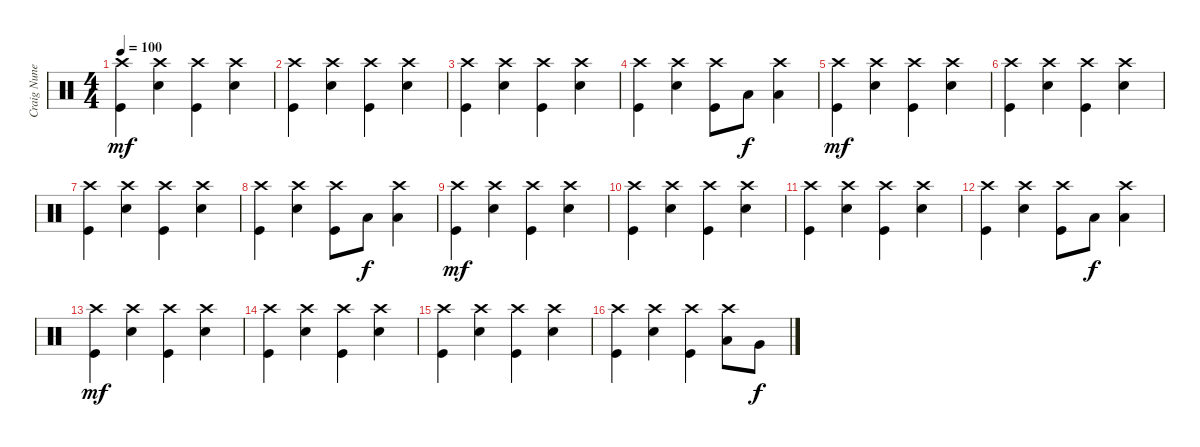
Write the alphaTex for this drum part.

\track ("Craig Nunenmacher (Drums)" "Craig Nune") {instrument percussion}
\staff {score}
\articulation defaults
\ts (4 4)
\tempo 100
\clef neutral
\ks c
("Crash high (hit)" "Kick (hit)").4{dy mf} ("Crash high (hit)" "Snare (hit) 2").4 ("Crash high (hit)" "Kick (hit)").4 ("Crash high (hit)" "Snare (hit) 2").4 |
("Crash high (hit)" "Kick (hit)").4 ("Crash high (hit)" "Snare (hit) 2").4 ("Crash high (hit)" "Kick (hit)").4 ("Crash high (hit)" "Snare (hit) 2").4 |
("Crash high (hit)" "Kick (hit)").4 ("Crash high (hit)" "Snare (hit) 2").4 ("Crash high (hit)" "Kick (hit)").4 ("Crash high (hit)" "Snare (hit) 2").4 |
("Crash high (hit)" "Kick (hit)").4 ("Crash high (hit)" "Snare (hit) 2").4 ("Crash high (hit)" "Kick (hit)").8 "Low Tom (hit)".8{dy f} ("Crash high (hit)" "Low Tom (hit)").4 |
("Crash high (hit)" "Kick (hit)").4{dy mf} ("Crash high (hit)" "Snare (hit) 2").4 ("Crash high (hit)" "Kick (hit)").4 ("Crash high (hit)" "Snare (hit) 2").4 |
("Crash high (hit)" "Kick (hit)").4 ("Crash high (hit)" "Snare (hit) 2").4 ("Crash high (hit)" "Kick (hit)").4 ("Crash high (hit)" "Snare (hit) 2").4 |
("Crash high (hit)" "Kick (hit)").4 ("Crash high (hit)" "Snare (hit) 2").4 ("Crash high (hit)" "Kick (hit)").4 ("Crash high (hit)" "Snare (hit) 2").4 |
("Crash high (hit)" "Kick (hit)").4 ("Crash high (hit)" "Snare (hit) 2").4 ("Crash high (hit)" "Kick (hit)").8 "Low Tom (hit)".8{dy f} ("Crash high (hit)" "Low Tom (hit)").4 |
("Crash high (hit)" "Kick (hit)").4{dy mf} ("Crash high (hit)" "Snare (hit) 2").4 ("Crash high (hit)" "Kick (hit)").4 ("Crash high (hit)" "Snare (hit) 2").4 |
("Crash high (hit)" "Kick (hit)").4 ("Crash high (hit)" "Snare (hit) 2").4 ("Crash high (hit)" "Kick (hit)").4 ("Crash high (hit)" "Snare (hit) 2").4 |
("Crash high (hit)" "Kick (hit)").4 ("Crash high (hit)" "Snare (hit) 2").4 ("Crash high (hit)" "Kick (hit)").4 ("Crash high (hit)" "Snare (hit) 2").4 |
("Crash high (hit)" "Kick (hit)").4 ("Crash high (hit)" "Snare (hit) 2").4 ("Crash high (hit)" "Kick (hit)").8 "Low Tom (hit)".8{dy f} ("Crash high (hit)" "Low Tom (hit)").4 |
("Crash high (hit)" "Kick (hit)").4{dy mf} ("Crash high (hit)" "Snare (hit) 2").4 ("Crash high (hit)" "Kick (hit)").4 ("Crash high (hit)" "Snare (hit) 2").4 |
("Crash high (hit)" "Kick (hit)").4 ("Crash high (hit)" "Snare (hit) 2").4 ("Crash high (hit)" "Kick (hit)").4 ("Crash high (hit)" "Snare (hit) 2").4 |
("Crash high (hit)" "Kick (hit)").4 ("Crash high (hit)" "Snare (hit) 2").4 ("Crash high (hit)" "Kick (hit)").4 ("Crash high (hit)" "Snare (hit) 2").4 |
("Crash high (hit)" "Kick (hit)").4 ("Crash high (hit)" "Snare (hit) 2").4 ("Crash high (hit)" "Kick (hit)").4 ("Crash high (hit)" "Low Tom (hit)").8 "Very Low Tom (hit)".8{dy f}
